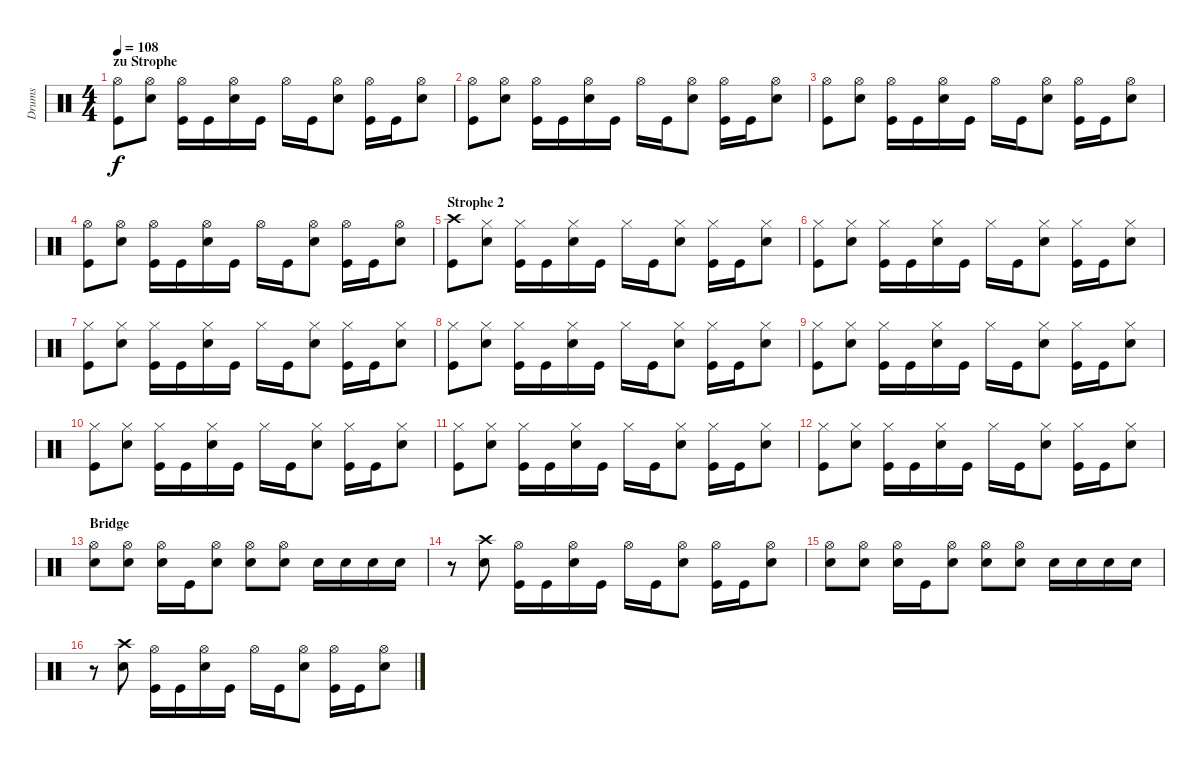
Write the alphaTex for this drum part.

\track ("Drums" "Drums") {instrument percussion}
\staff {score}
\articulation defaults
\ts (4 4)
\section ("" "zu Strophe")
\tempo 108
\clef neutral
\ks c
("Hi-Hat (open)" "Kick (hit)").8{dy f} ("Hi-Hat (open)" "Snare (hit) 2").8 ("Hi-Hat (open)" "Kick (hit)").16 "Kick (hit)".16 ("Hi-Hat (open)" "Snare (hit) 2").16 "Kick (hit)".16 "Hi-Hat (open)".16 "Kick (hit)".16 ("Hi-Hat (open)" "Snare (hit) 2").8 ("Hi-Hat (open)" "Kick (hit)").16 "Kick (hit)".16 ("Hi-Hat (open)" "Snare (hit) 2").8 |
("Hi-Hat (open)" "Kick (hit)").8 ("Hi-Hat (open)" "Snare (hit) 2").8 ("Hi-Hat (open)" "Kick (hit)").16 "Kick (hit)".16 ("Hi-Hat (open)" "Snare (hit) 2").16 "Kick (hit)".16 "Hi-Hat (open)".16 "Kick (hit)".16 ("Hi-Hat (open)" "Snare (hit) 2").8 ("Hi-Hat (open)" "Kick (hit)").16 "Kick (hit)".16 ("Hi-Hat (open)" "Snare (hit) 2").8 |
("Hi-Hat (open)" "Kick (hit)").8 ("Hi-Hat (open)" "Snare (hit) 2").8 ("Hi-Hat (open)" "Kick (hit)").16 "Kick (hit)".16 ("Hi-Hat (open)" "Snare (hit) 2").16 "Kick (hit)".16 "Hi-Hat (open)".16 "Kick (hit)".16 ("Hi-Hat (open)" "Snare (hit) 2").8 ("Hi-Hat (open)" "Kick (hit)").16 "Kick (hit)".16 ("Hi-Hat (open)" "Snare (hit) 2").8 |
("Hi-Hat (open)" "Kick (hit)").8 ("Hi-Hat (open)" "Snare (hit) 2").8 ("Hi-Hat (open)" "Kick (hit)").16 "Kick (hit)".16 ("Hi-Hat (open)" "Snare (hit) 2").16 "Kick (hit)".16 "Hi-Hat (open)".16 "Kick (hit)".16 ("Hi-Hat (open)" "Snare (hit) 2").8 ("Hi-Hat (open)" "Kick (hit)").16 "Kick (hit)".16 ("Hi-Hat (open)" "Snare (hit) 2").8 |
\section ("" "Strophe 2")
("Crash high (hit)" "Kick (hit)").8 ("Hi-Hat (closed)" "Snare (hit) 2").8 ("Hi-Hat (closed)" "Kick (hit)").16 "Kick (hit)".16 ("Hi-Hat (closed)" "Snare (hit) 2").16 "Kick (hit)".16 "Hi-Hat (closed)".16 "Kick (hit)".16 ("Hi-Hat (closed)" "Snare (hit) 2").8 ("Hi-Hat (closed)" "Kick (hit)").16 "Kick (hit)".16 ("Hi-Hat (closed)" "Snare (hit) 2").8 |
("Hi-Hat (closed)" "Kick (hit)").8 ("Hi-Hat (closed)" "Snare (hit) 2").8 ("Hi-Hat (closed)" "Kick (hit)").16 "Kick (hit)".16 ("Hi-Hat (closed)" "Snare (hit) 2").16 "Kick (hit)".16 "Hi-Hat (closed)".16 "Kick (hit)".16 ("Hi-Hat (closed)" "Snare (hit) 2").8 ("Hi-Hat (closed)" "Kick (hit)").16 "Kick (hit)".16 ("Hi-Hat (closed)" "Snare (hit) 2").8 |
("Hi-Hat (closed)" "Kick (hit)").8 ("Hi-Hat (closed)" "Snare (hit) 2").8 ("Hi-Hat (closed)" "Kick (hit)").16 "Kick (hit)".16 ("Hi-Hat (closed)" "Snare (hit) 2").16 "Kick (hit)".16 "Hi-Hat (closed)".16 "Kick (hit)".16 ("Hi-Hat (closed)" "Snare (hit) 2").8 ("Hi-Hat (closed)" "Kick (hit)").16 "Kick (hit)".16 ("Hi-Hat (closed)" "Snare (hit) 2").8 |
("Hi-Hat (closed)" "Kick (hit)").8 ("Hi-Hat (closed)" "Snare (hit) 2").8 ("Hi-Hat (closed)" "Kick (hit)").16 "Kick (hit)".16 ("Hi-Hat (closed)" "Snare (hit) 2").16 "Kick (hit)".16 "Hi-Hat (closed)".16 "Kick (hit)".16 ("Hi-Hat (closed)" "Snare (hit) 2").8 ("Hi-Hat (closed)" "Kick (hit)").16 "Kick (hit)".16 ("Hi-Hat (closed)" "Snare (hit) 2").8 |
("Hi-Hat (closed)" "Kick (hit)").8 ("Hi-Hat (closed)" "Snare (hit) 2").8 ("Hi-Hat (closed)" "Kick (hit)").16 "Kick (hit)".16 ("Hi-Hat (closed)" "Snare (hit) 2").16 "Kick (hit)".16 "Hi-Hat (closed)".16 "Kick (hit)".16 ("Hi-Hat (closed)" "Snare (hit) 2").8 ("Hi-Hat (closed)" "Kick (hit)").16 "Kick (hit)".16 ("Hi-Hat (closed)" "Snare (hit) 2").8 |
("Hi-Hat (closed)" "Kick (hit)").8 ("Hi-Hat (closed)" "Snare (hit) 2").8 ("Hi-Hat (closed)" "Kick (hit)").16 "Kick (hit)".16 ("Hi-Hat (closed)" "Snare (hit) 2").16 "Kick (hit)".16 "Hi-Hat (closed)".16 "Kick (hit)".16 ("Hi-Hat (closed)" "Snare (hit) 2").8 ("Hi-Hat (closed)" "Kick (hit)").16 "Kick (hit)".16 ("Hi-Hat (closed)" "Snare (hit) 2").8 |
("Hi-Hat (closed)" "Kick (hit)").8 ("Hi-Hat (closed)" "Snare (hit) 2").8 ("Hi-Hat (closed)" "Kick (hit)").16 "Kick (hit)".16 ("Hi-Hat (closed)" "Snare (hit) 2").16 "Kick (hit)".16 "Hi-Hat (closed)".16 "Kick (hit)".16 ("Hi-Hat (closed)" "Snare (hit) 2").8 ("Hi-Hat (closed)" "Kick (hit)").16 "Kick (hit)".16 ("Hi-Hat (closed)" "Snare (hit) 2").8 |
("Hi-Hat (closed)" "Kick (hit)").8 ("Hi-Hat (closed)" "Snare (hit) 2").8 ("Hi-Hat (closed)" "Kick (hit)").16 "Kick (hit)".16 ("Hi-Hat (closed)" "Snare (hit) 2").16 "Kick (hit)".16 "Hi-Hat (closed)".16 "Kick (hit)".16 ("Hi-Hat (closed)" "Snare (hit) 2").8 ("Hi-Hat (closed)" "Kick (hit)").16 "Kick (hit)".16 ("Hi-Hat (closed)" "Snare (hit) 2").8 |
\section ("" "Bridge")
("Hi-Hat (open)" "Snare (hit) 2").8 ("Hi-Hat (open)" "Snare (hit) 2").8 ("Hi-Hat (open)" "Snare (hit) 2").16 "Kick (hit)".16 ("Hi-Hat (open)" "Snare (hit) 2").8 ("Hi-Hat (open)" "Snare (hit) 2").8 ("Hi-Hat (open)" "Snare (hit) 2").8 "Snare (hit) 2".16 "Snare (hit) 2".16 "Snare (hit) 2".16 "Snare (hit) 2".16 |
r.8 ("Crash high (hit)" "Snare (hit) 2").8 ("Hi-Hat (open)" "Kick (hit)").16 "Kick (hit)".16 ("Hi-Hat (open)" "Snare (hit) 2").16 "Kick (hit)".16 "Hi-Hat (open)".16 "Kick (hit)".16 ("Hi-Hat (open)" "Snare (hit) 2").8 ("Hi-Hat (open)" "Kick (hit)").16 "Kick (hit)".16 ("Hi-Hat (open)" "Snare (hit) 2").8 |
("Hi-Hat (open)" "Snare (hit) 2").8 ("Hi-Hat (open)" "Snare (hit) 2").8 ("Hi-Hat (open)" "Snare (hit) 2").16 "Kick (hit)".16 ("Hi-Hat (open)" "Snare (hit) 2").8 ("Hi-Hat (open)" "Snare (hit) 2").8 ("Hi-Hat (open)" "Snare (hit) 2").8 "Snare (hit) 2".16 "Snare (hit) 2".16 "Snare (hit) 2".16 "Snare (hit) 2".16 |
r.8 ("Crash high (hit)" "Snare (hit) 2").8 ("Hi-Hat (open)" "Kick (hit)").16 "Kick (hit)".16 ("Hi-Hat (open)" "Snare (hit) 2").16 "Kick (hit)".16 "Hi-Hat (open)".16 "Kick (hit)".16 ("Hi-Hat (open)" "Snare (hit) 2").8 ("Hi-Hat (open)" "Kick (hit)").16 "Kick (hit)".16 ("Hi-Hat (open)" "Snare (hit) 2").8
